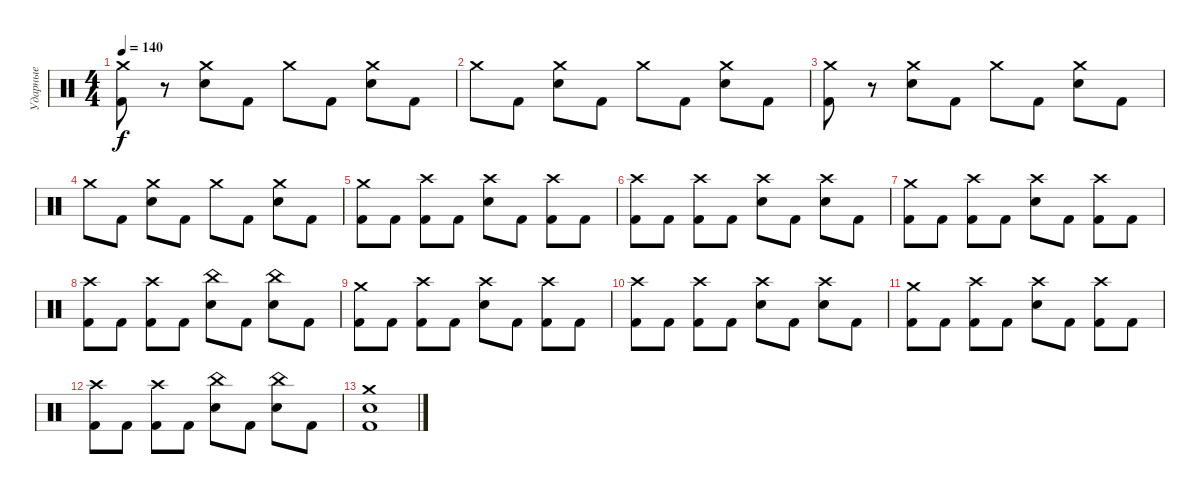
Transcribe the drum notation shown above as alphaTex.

\track ("Ударные" "Ударные") {instrument percussion}
\staff {score}
\articulation defaults
\ts (4 4)
\tempo 140
\clef neutral
\ks c
("Crash medium (hit)" "Kick (hit) 2").8{dy f} r.8 ("Crash medium (hit)" "Electric Snare (hit)").8 "Kick (hit) 2".8 "Crash medium (hit)".8 "Kick (hit) 2".8 ("Crash medium (hit)" "Electric Snare (hit)").8 "Kick (hit) 2".8 |
"Crash medium (hit)".8 "Kick (hit) 2".8 ("Crash medium (hit)" "Electric Snare (hit)").8 "Kick (hit) 2".8 "Crash medium (hit)".8 "Kick (hit) 2".8 ("Crash medium (hit)" "Electric Snare (hit)").8 "Kick (hit) 2".8 |
("Crash medium (hit)" "Kick (hit) 2").8 r.8 ("Crash medium (hit)" "Electric Snare (hit)").8 "Kick (hit) 2".8 "Crash medium (hit)".8 "Kick (hit) 2".8 ("Crash medium (hit)" "Electric Snare (hit)").8 "Kick (hit) 2".8 |
"Crash medium (hit)".8 "Kick (hit) 2".8 ("Crash medium (hit)" "Electric Snare (hit)").8 "Kick (hit) 2".8 "Crash medium (hit)".8 "Kick (hit) 2".8 ("Crash medium (hit)" "Electric Snare (hit)").8 "Kick (hit) 2".8 |
("Crash medium (hit)" "Kick (hit) 2").8 "Kick (hit) 2".8 ("Crash high (hit)" "Kick (hit) 2").8 "Kick (hit) 2".8 ("Crash high (hit)" "Electric Snare (hit)").8 "Kick (hit) 2".8 ("Crash high (hit)" "Kick (hit) 2").8 "Kick (hit) 2".8 |
("Crash high (hit)" "Kick (hit) 2").8 "Kick (hit) 2".8 ("Crash high (hit)" "Kick (hit) 2").8 "Kick (hit) 2".8 ("Crash high (hit)" "Electric Snare (hit)").8 "Kick (hit) 2".8 ("Crash high (hit)" "Electric Snare (hit)").8 "Kick (hit) 2".8 |
("Crash medium (hit)" "Kick (hit) 2").8 "Kick (hit) 2".8 ("Crash high (hit)" "Kick (hit) 2").8 "Kick (hit) 2".8 ("Crash high (hit)" "Electric Snare (hit)").8 "Kick (hit) 2".8 ("Crash high (hit)" "Kick (hit) 2").8 "Kick (hit) 2".8 |
("Crash high (hit)" "Kick (hit) 2").8 "Kick (hit) 2".8 ("Crash high (hit)" "Kick (hit) 2").8 "Kick (hit) 2".8 ("China (hit)" "Electric Snare (hit)").8 "Kick (hit) 2".8 ("China (hit)" "Electric Snare (hit)").8 "Kick (hit) 2".8 |
("Crash medium (hit)" "Kick (hit) 2").8 "Kick (hit) 2".8 ("Crash high (hit)" "Kick (hit) 2").8 "Kick (hit) 2".8 ("Crash high (hit)" "Electric Snare (hit)").8 "Kick (hit) 2".8 ("Crash high (hit)" "Kick (hit) 2").8 "Kick (hit) 2".8 |
("Crash high (hit)" "Kick (hit) 2").8 "Kick (hit) 2".8 ("Crash high (hit)" "Kick (hit) 2").8 "Kick (hit) 2".8 ("Crash high (hit)" "Electric Snare (hit)").8 "Kick (hit) 2".8 ("Crash high (hit)" "Electric Snare (hit)").8 "Kick (hit) 2".8 |
("Crash medium (hit)" "Kick (hit) 2").8 "Kick (hit) 2".8 ("Crash high (hit)" "Kick (hit) 2").8 "Kick (hit) 2".8 ("Crash high (hit)" "Electric Snare (hit)").8 "Kick (hit) 2".8 ("Crash high (hit)" "Kick (hit) 2").8 "Kick (hit) 2".8 |
("Crash high (hit)" "Kick (hit) 2").8 "Kick (hit) 2".8 ("Crash high (hit)" "Kick (hit) 2").8 "Kick (hit) 2".8 ("China (hit)" "Electric Snare (hit)").8 "Kick (hit) 2".8 ("China (hit)" "Electric Snare (hit)").8 "Kick (hit) 2".8 |
("Crash medium (hit)" "Electric Snare (hit)" "Kick (hit) 2").1
